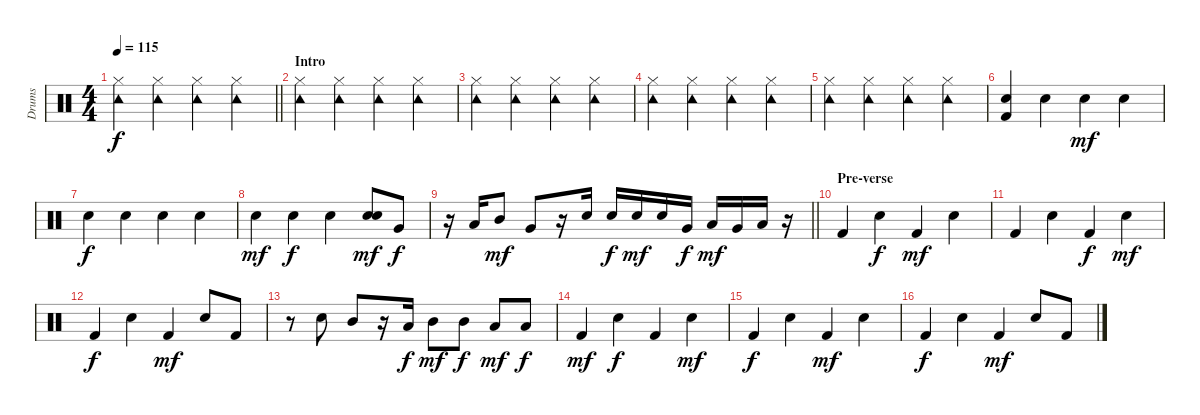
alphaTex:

\track ("Drums" "Drums") {instrument percussion}
\staff {score}
\articulation defaults
\ts (4 4)
\tempo 115
\clef neutral
\barLineRight lightlight
\ks c
("Tambourine (hit)" "Hi-Hat (closed)").4{dy f} ("Tambourine (hit)" "Hi-Hat (closed)").4 ("Tambourine (hit)" "Hi-Hat (closed)").4 ("Tambourine (hit)" "Hi-Hat (closed)").4 |
\section ("" "Intro")
("Tambourine (hit)" "Hi-Hat (closed)").4 ("Tambourine (hit)" "Hi-Hat (closed)").4 ("Tambourine (hit)" "Hi-Hat (closed)").4 ("Tambourine (hit)" "Hi-Hat (closed)").4 |
("Tambourine (hit)" "Hi-Hat (closed)").4 ("Tambourine (hit)" "Hi-Hat (closed)").4 ("Tambourine (hit)" "Hi-Hat (closed)").4 ("Tambourine (hit)" "Hi-Hat (closed)").4 |
("Tambourine (hit)" "Hi-Hat (closed)").4 ("Tambourine (hit)" "Hi-Hat (closed)").4 ("Tambourine (hit)" "Hi-Hat (closed)").4 ("Tambourine (hit)" "Hi-Hat (closed)").4 |
("Tambourine (hit)" "Hi-Hat (closed)").4 ("Tambourine (hit)" "Hi-Hat (closed)").4 ("Tambourine (hit)" "Hi-Hat (closed)").4 ("Tambourine (hit)" "Hi-Hat (closed)").4 |
("Kick (hit) 2" "Electric Snare (hit)").4 "Electric Snare (hit)".4 "Electric Snare (hit)".4{dy mf} "Electric Snare (hit)".4 |
"Electric Snare (hit)".4{dy f} "Electric Snare (hit)".4 "Electric Snare (hit)".4 "Electric Snare (hit)".4 |
"Electric Snare (hit)".4{dy mf} "Electric Snare (hit)".4{dy f} "Electric Snare (hit)".4 ("Electric Snare (hit)" "Electric Snare (hit)").8{dy mf} "Very Low Tom (hit)".8{dy f} |
\barLineRight lightlight
r.16 "Low Tom (hit)".16 "Mid Tom (hit)".8{dy mf} "Very Low Tom (hit)".8 r.16 "Electric Snare (hit)".16 "Electric Snare (hit)".16{dy f} "Electric Snare (hit)".16{dy mf} "Electric Snare (hit)".16 "Very Low Tom (hit)".16{dy f} "Low Tom (hit)".16{dy mf} "Very Low Tom (hit)".16 "Low Tom (hit)".16 r.16 |
\section ("" "Pre-verse")
"Kick (hit) 2".4 "Electric Snare (hit)".4{dy f} "Kick (hit) 2".4{dy mf} "Electric Snare (hit)".4 |
"Kick (hit) 2".4 "Electric Snare (hit)".4 "Kick (hit) 2".4{dy f} "Electric Snare (hit)".4{dy mf} |
"Kick (hit) 2".4{dy f} "Electric Snare (hit)".4 "Kick (hit) 2".4{dy mf} "Electric Snare (hit)".8 "Kick (hit) 2".8 |
r.8 "Electric Snare (hit)".8 "Mid Tom (hit)".8 r.16 "Low Tom (hit)".16{dy f} "Mid Tom (hit)".8{dy mf} "Mid Tom (hit)".8{dy f} "Low Tom (hit)".8{dy mf} "Low Tom (hit)".8{dy f} |
"Kick (hit) 2".4{dy mf} "Electric Snare (hit)".4{dy f} "Kick (hit) 2".4 "Electric Snare (hit)".4{dy mf} |
"Kick (hit) 2".4{dy f} "Electric Snare (hit)".4 "Kick (hit) 2".4{dy mf} "Electric Snare (hit)".4 |
"Kick (hit) 2".4{dy f} "Electric Snare (hit)".4 "Kick (hit) 2".4{dy mf} "Electric Snare (hit)".8 "Kick (hit) 2".8
